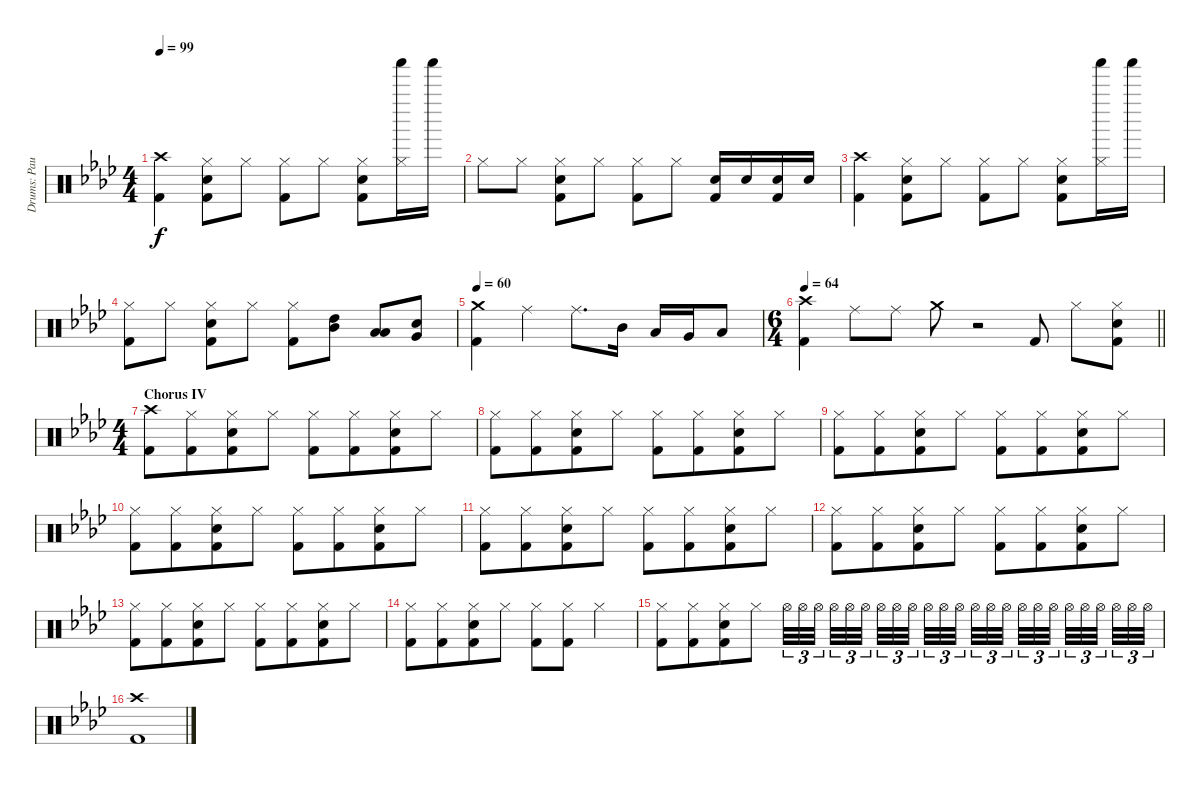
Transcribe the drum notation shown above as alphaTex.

\track ("Drums: Paulinho" "Drums: Pau") {instrument percussion}
\staff {score}
\articulation defaults
\ts (4 4)
\tempo 99
\clef neutral
\ks ab
("Crash high (hit)" "Kick (hit) 2").4{dy f} ("Hi-Hat (closed)" "Electric Snare (hit)" "Kick (hit) 2").8 "Hi-Hat (closed)".8 ("Hi-Hat (closed)" "Kick (hit) 2").8 "Hi-Hat (closed)".8 ("Hi-Hat (closed)" "Electric Snare (hit)" "Kick (hit) 2").8 ("Shaker (hit)" "Hi-Hat (closed)").16 "Shaker (hit)".16 |
"Hi-Hat (closed)".8 "Hi-Hat (closed)".8 ("Hi-Hat (closed)" "Electric Snare (hit)" "Kick (hit) 2").8 "Hi-Hat (closed)".8 ("Hi-Hat (closed)" "Kick (hit) 2").8 "Hi-Hat (closed)".8 ("Electric Snare (hit)" "Kick (hit) 2").16 "Electric Snare (hit)".16 ("Electric Snare (hit)" "Kick (hit) 2").16 "Electric Snare (hit)".16 |
("Crash high (hit)" "Kick (hit) 2").4 ("Hi-Hat (closed)" "Electric Snare (hit)" "Kick (hit) 2").8 "Hi-Hat (closed)".8 ("Hi-Hat (closed)" "Kick (hit) 2").8 "Hi-Hat (closed)".8 ("Hi-Hat (closed)" "Electric Snare (hit)" "Kick (hit) 2").8 ("Shaker (hit)" "Hi-Hat (closed)").16 "Shaker (hit)".16 |
("Hi-Hat (closed)" "Kick (hit) 2").8 "Hi-Hat (closed)".8 ("Hi-Hat (closed)" "Electric Snare (hit)" "Kick (hit) 2").8 "Hi-Hat (closed)".8 ("Hi-Hat (closed)" "Kick (hit) 2").8 ("High Tom (hit)" "Mid Tom (hit)").8 ("Low Tom (hit)" "Low Tom (hit)").8 ("Electric Snare (hit)" "Very Low Tom (hit)").8 |
\tempo 60
("Crash medium (hit)" "Kick (hit) 2").4 "Ride (middle)".4 "Ride (middle)".8{d} "Mid Tom (hit)".16 "Low Tom (hit)".16 "Very Low Tom (hit)".16 "Low Floor Tom (hit)".8 |
\ts (6 4)
\tempo 64
\barLineRight lightlight
("Crash high (hit)" "Kick (hit) 2").4 "Ride (middle)".8 "Ride (middle)".8 "Crash medium (hit)".8 r.2 "Kick (hit) 2".8 "Hi-Hat (closed)".8 ("Hi-Hat (closed)" "Electric Snare (hit)" "Kick (hit) 2").8 |
\ts (4 4)
\section ("" "Chorus IV")
("Crash high (hit)" "Kick (hit) 2").8 ("Hi-Hat (closed)" "Kick (hit) 2").8{beam merge} ("Hi-Hat (closed)" "Electric Snare (hit)" "Kick (hit) 2").8{beam merge} "Hi-Hat (closed)".8 ("Hi-Hat (closed)" "Kick (hit) 2").8 ("Hi-Hat (closed)" "Kick (hit) 2").8{beam merge} ("Hi-Hat (closed)" "Electric Snare (hit)" "Kick (hit) 2").8{beam merge} "Hi-Hat (closed)".8 |
("Hi-Hat (closed)" "Kick (hit) 2").8 ("Hi-Hat (closed)" "Kick (hit) 2").8{beam merge} ("Hi-Hat (closed)" "Electric Snare (hit)" "Kick (hit) 2").8{beam merge} "Hi-Hat (closed)".8 ("Hi-Hat (closed)" "Kick (hit) 2").8 ("Hi-Hat (closed)" "Kick (hit) 2").8{beam merge} ("Hi-Hat (closed)" "Electric Snare (hit)" "Kick (hit) 2").8{beam merge} "Hi-Hat (closed)".8 |
("Hi-Hat (closed)" "Kick (hit) 2").8 ("Hi-Hat (closed)" "Kick (hit) 2").8{beam merge} ("Hi-Hat (closed)" "Electric Snare (hit)" "Kick (hit) 2").8{beam merge} "Hi-Hat (closed)".8 ("Hi-Hat (closed)" "Kick (hit) 2").8 ("Hi-Hat (closed)" "Kick (hit) 2").8{beam merge} ("Hi-Hat (closed)" "Electric Snare (hit)" "Kick (hit) 2").8{beam merge} "Hi-Hat (closed)".8 |
("Hi-Hat (closed)" "Kick (hit) 2").8 ("Hi-Hat (closed)" "Kick (hit) 2").8{beam merge} ("Hi-Hat (closed)" "Electric Snare (hit)" "Kick (hit) 2").8{beam merge} "Hi-Hat (closed)".8 ("Hi-Hat (closed)" "Kick (hit) 2").8 ("Hi-Hat (closed)" "Kick (hit) 2").8{beam merge} ("Hi-Hat (closed)" "Electric Snare (hit)" "Kick (hit) 2").8{beam merge} "Hi-Hat (closed)".8 |
("Hi-Hat (closed)" "Kick (hit) 2").8 ("Hi-Hat (closed)" "Kick (hit) 2").8{beam merge} ("Hi-Hat (closed)" "Electric Snare (hit)" "Kick (hit) 2").8{beam merge} "Hi-Hat (closed)".8 ("Hi-Hat (closed)" "Kick (hit) 2").8 ("Hi-Hat (closed)" "Kick (hit) 2").8{beam merge} ("Hi-Hat (closed)" "Electric Snare (hit)" "Kick (hit) 2").8{beam merge} "Hi-Hat (closed)".8 |
("Hi-Hat (closed)" "Kick (hit) 2").8 ("Hi-Hat (closed)" "Kick (hit) 2").8{beam merge} ("Hi-Hat (closed)" "Electric Snare (hit)" "Kick (hit) 2").8{beam merge} "Hi-Hat (closed)".8 ("Hi-Hat (closed)" "Kick (hit) 2").8 ("Hi-Hat (closed)" "Kick (hit) 2").8{beam merge} ("Hi-Hat (closed)" "Electric Snare (hit)" "Kick (hit) 2").8{beam merge} "Hi-Hat (closed)".8 |
("Hi-Hat (closed)" "Kick (hit) 2").8 ("Hi-Hat (closed)" "Kick (hit) 2").8{beam merge} ("Hi-Hat (closed)" "Electric Snare (hit)" "Kick (hit) 2").8{beam merge} "Hi-Hat (closed)".8 ("Hi-Hat (closed)" "Kick (hit) 2").8 ("Hi-Hat (closed)" "Kick (hit) 2").8{beam merge} ("Hi-Hat (closed)" "Electric Snare (hit)" "Kick (hit) 2").8{beam merge} "Hi-Hat (closed)".8 |
("Hi-Hat (closed)" "Kick (hit) 2").8 ("Hi-Hat (closed)" "Kick (hit) 2").8{beam merge} ("Hi-Hat (closed)" "Electric Snare (hit)" "Kick (hit) 2").8{beam merge} "Hi-Hat (closed)".8 ("Hi-Hat (closed)" "Kick (hit) 2").8 ("Hi-Hat (closed)" "Kick (hit) 2").8 "Hi-Hat (closed)".4 |
("Hi-Hat (closed)" "Kick (hit) 2").8 ("Hi-Hat (closed)" "Kick (hit) 2").8{beam merge} ("Hi-Hat (closed)" "Electric Snare (hit)" "Kick (hit) 2").8{beam merge} "Hi-Hat (closed)".8 "Hi-Hat (open)".32{tu (3 2)} "Hi-Hat (open)".32{tu (3 2) beam merge} "Hi-Hat (open)".32{tu (3 2) beam splitsecondary} "Hi-Hat (open)".32{tu (3 2)} "Hi-Hat (open)".32{tu (3 2)} "Hi-Hat (open)".32{tu (3 2) beam splitsecondary} "Hi-Hat (open)".32{tu (3 2)} "Hi-Hat (open)".32{tu (3 2)} "Hi-Hat (open)".32{tu (3 2) beam splitsecondary} "Hi-Hat (open)".32{tu (3 2) beam merge} "Hi-Hat (open)".32{tu (3 2)} "Hi-Hat (open)".32{tu (3 2)} "Hi-Hat (open)".32{tu (3 2)} "Hi-Hat (open)".32{tu (3 2) beam merge} "Hi-Hat (open)".32{tu (3 2) beam splitsecondary} "Hi-Hat (open)".32{tu (3 2)} "Hi-Hat (open)".32{tu (3 2) beam merge} "Hi-Hat (open)".32{tu (3 2) beam splitsecondary} "Hi-Hat (open)".32{tu (3 2)} "Hi-Hat (open)".32{tu (3 2)} "Hi-Hat (open)".32{tu (3 2) beam splitsecondary} "Hi-Hat (open)".32{tu (3 2)} "Hi-Hat (open)".32{tu (3 2)} "Hi-Hat (open)".32{tu (3 2)} |
("Crash high (hit)" "Kick (hit) 2").1
